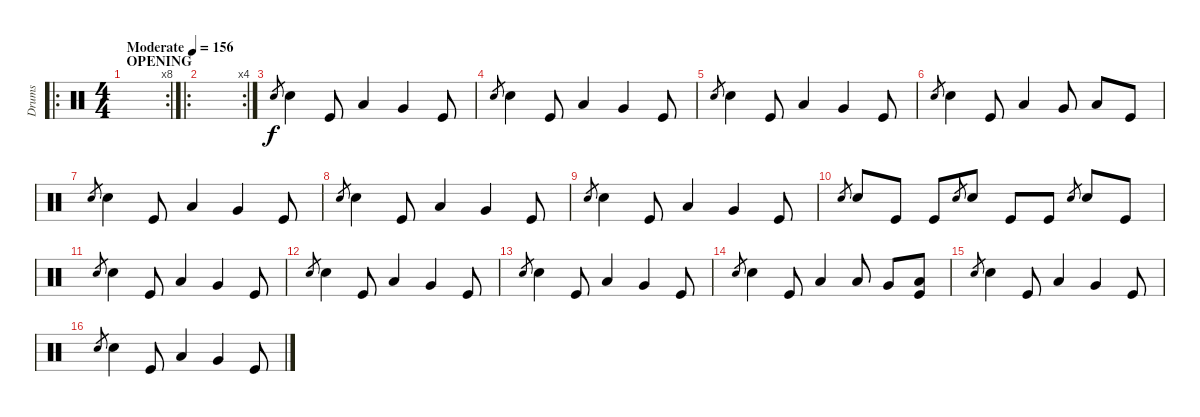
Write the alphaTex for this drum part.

\track ("Drums" "Drums") {instrument percussion}
\staff {score}
\articulation defaults
\ro
\rc 8
\ts (4 4)
\section ("" "OPENING")
\tempo (156 "Moderate")
\clef neutral
\ks c
|
\ro
\rc 4
|
"Electric Snare (hit)".8{gr} "Electric Snare (hit)".4 "Kick (hit)".8 "Low Tom (hit)".4 "Very Low Tom (hit)".4 "Kick (hit)".8 |
"Electric Snare (hit)".8{gr} "Electric Snare (hit)".4 "Kick (hit)".8 "Low Tom (hit)".4 "Very Low Tom (hit)".4 "Kick (hit)".8 |
"Electric Snare (hit)".8{gr} "Electric Snare (hit)".4 "Kick (hit)".8 "Low Tom (hit)".4 "Very Low Tom (hit)".4 "Kick (hit)".8 |
"Electric Snare (hit)".8{gr} "Electric Snare (hit)".4 "Kick (hit)".8 "Low Tom (hit)".4 "Very Low Tom (hit)".8 "Low Floor Tom (hit)".8 "Kick (hit)".8 |
"Electric Snare (hit)".8{gr} "Electric Snare (hit)".4 "Kick (hit)".8 "Low Tom (hit)".4 "Very Low Tom (hit)".4 "Kick (hit)".8 |
"Electric Snare (hit)".8{gr} "Electric Snare (hit)".4 "Kick (hit)".8 "Low Tom (hit)".4 "Very Low Tom (hit)".4 "Kick (hit)".8 |
"Electric Snare (hit)".8{gr} "Electric Snare (hit)".4 "Kick (hit)".8 "Low Tom (hit)".4 "Very Low Tom (hit)".4 "Kick (hit)".8 |
"Electric Snare (hit)".8{gr} "Electric Snare (hit)".8 "Kick (hit)".8 "Kick (hit)".8 "Electric Snare (hit)".8{gr} "Electric Snare (hit)".8 "Kick (hit)".8 "Kick (hit)".8 "Electric Snare (hit)".8{gr} "Electric Snare (hit)".8 "Kick (hit)".8 |
"Electric Snare (hit)".8{gr} "Electric Snare (hit)".4 "Kick (hit)".8 "Low Tom (hit)".4 "Very Low Tom (hit)".4 "Kick (hit)".8 |
"Electric Snare (hit)".8{gr} "Electric Snare (hit)".4 "Kick (hit)".8 "Low Tom (hit)".4 "Very Low Tom (hit)".4 "Kick (hit)".8 |
"Electric Snare (hit)".8{gr} "Electric Snare (hit)".4 "Kick (hit)".8 "Low Tom (hit)".4 "Very Low Tom (hit)".4 "Kick (hit)".8 |
"Electric Snare (hit)".8{gr} "Electric Snare (hit)".4 "Kick (hit)".8 "Low Tom (hit)".4 "Low Tom (hit)".8 "Very Low Tom (hit)".8 ("Low Floor Tom (hit)" "Kick (hit)").8 |
"Electric Snare (hit)".8{gr} "Electric Snare (hit)".4 "Kick (hit)".8 "Low Tom (hit)".4 "Very Low Tom (hit)".4 "Kick (hit)".8 |
"Electric Snare (hit)".8{gr} "Electric Snare (hit)".4 "Kick (hit)".8 "Low Tom (hit)".4 "Very Low Tom (hit)".4 "Kick (hit)".8
